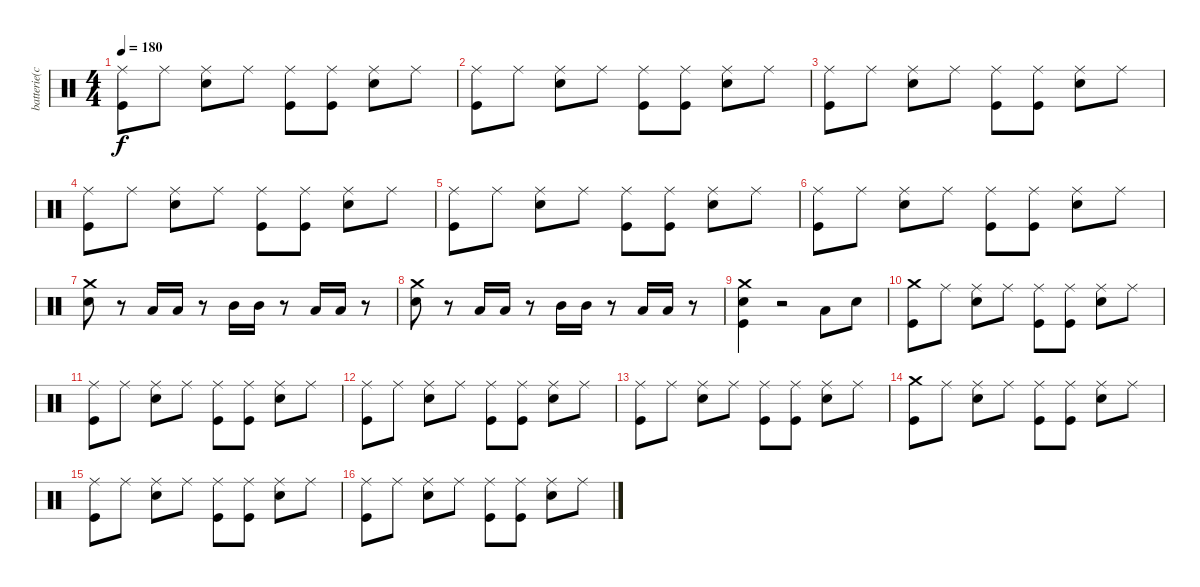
\track ("batterie(chip)" "batterie(c") {instrument percussion}
\staff {score}
\articulation defaults
\ts (4 4)
\tempo 180
\clef neutral
\ks c
("Ride (middle)" "Kick (hit)").8{dy f} "Ride (middle)".8 ("Ride (middle)" "Snare (hit) 2").8 "Ride (middle)".8 ("Ride (middle)" "Kick (hit)").8 ("Ride (middle)" "Kick (hit)").8 ("Ride (middle)" "Snare (hit) 2").8 "Ride (middle)".8 |
("Ride (middle)" "Kick (hit)").8 "Ride (middle)".8 ("Ride (middle)" "Snare (hit) 2").8 "Ride (middle)".8 ("Ride (middle)" "Kick (hit)").8 ("Ride (middle)" "Kick (hit)").8 ("Ride (middle)" "Snare (hit) 2").8 "Ride (middle)".8 |
("Ride (middle)" "Kick (hit)").8 "Ride (middle)".8 ("Ride (middle)" "Snare (hit) 2").8 "Ride (middle)".8 ("Ride (middle)" "Kick (hit)").8 ("Ride (middle)" "Kick (hit)").8 ("Ride (middle)" "Snare (hit) 2").8 "Ride (middle)".8 |
("Ride (middle)" "Kick (hit)").8 "Ride (middle)".8 ("Ride (middle)" "Snare (hit) 2").8 "Ride (middle)".8 ("Ride (middle)" "Kick (hit)").8 ("Ride (middle)" "Kick (hit)").8 ("Ride (middle)" "Snare (hit) 2").8 "Ride (middle)".8 |
("Ride (middle)" "Kick (hit)").8 "Ride (middle)".8 ("Ride (middle)" "Snare (hit) 2").8 "Ride (middle)".8 ("Ride (middle)" "Kick (hit)").8 ("Ride (middle)" "Kick (hit)").8 ("Ride (middle)" "Snare (hit) 2").8 "Ride (middle)".8 |
("Ride (middle)" "Kick (hit)").8 "Ride (middle)".8 ("Ride (middle)" "Snare (hit) 2").8 "Ride (middle)".8 ("Ride (middle)" "Kick (hit)").8 ("Ride (middle)" "Kick (hit)").8 ("Ride (middle)" "Snare (hit) 2").8 "Ride (middle)".8 |
("Crash medium (hit)" "Snare (hit) 2").8 r.8 "Low Tom (hit)".16 "Low Tom (hit)".16 r.8 "Mid Tom (hit)".16 "Mid Tom (hit)".16 r.8 "Low Tom (hit)".16 "Low Tom (hit)".16 r.8 |
("Crash medium (hit)" "Snare (hit) 2").8 r.8 "Low Tom (hit)".16 "Low Tom (hit)".16 r.8 "Mid Tom (hit)".16 "Mid Tom (hit)".16 r.8 "Low Tom (hit)".16 "Low Tom (hit)".16 r.8 |
("Crash medium (hit)" "Snare (hit) 2" "Kick (hit)").4 r.2 "Low Tom (hit)".8 "Snare (hit) 2".8 |
("Crash medium (hit)" "Kick (hit)").8 "Ride (middle)".8 ("Ride (middle)" "Snare (hit) 2").8 "Ride (middle)".8 ("Ride (middle)" "Kick (hit)").8 ("Ride (middle)" "Kick (hit)").8 ("Ride (middle)" "Snare (hit) 2").8 "Ride (middle)".8 |
("Ride (middle)" "Kick (hit)").8 "Ride (middle)".8 ("Ride (middle)" "Snare (hit) 2").8 "Ride (middle)".8 ("Ride (middle)" "Kick (hit)").8 ("Ride (middle)" "Kick (hit)").8 ("Ride (middle)" "Snare (hit) 2").8 "Ride (middle)".8 |
("Ride (middle)" "Kick (hit)").8 "Ride (middle)".8 ("Ride (middle)" "Snare (hit) 2").8 "Ride (middle)".8 ("Ride (middle)" "Kick (hit)").8 ("Ride (middle)" "Kick (hit)").8 ("Ride (middle)" "Snare (hit) 2").8 "Ride (middle)".8 |
("Ride (middle)" "Kick (hit)").8 "Ride (middle)".8 ("Ride (middle)" "Snare (hit) 2").8 "Ride (middle)".8 ("Ride (middle)" "Kick (hit)").8 ("Ride (middle)" "Kick (hit)").8 ("Ride (middle)" "Snare (hit) 2").8 "Ride (middle)".8 |
("Crash medium (hit)" "Kick (hit)").8 "Ride (middle)".8 ("Ride (middle)" "Snare (hit) 2").8 "Ride (middle)".8 ("Ride (middle)" "Kick (hit)").8 ("Ride (middle)" "Kick (hit)").8 ("Ride (middle)" "Snare (hit) 2").8 "Ride (middle)".8 |
("Ride (middle)" "Kick (hit)").8 "Ride (middle)".8 ("Ride (middle)" "Snare (hit) 2").8 "Ride (middle)".8 ("Ride (middle)" "Kick (hit)").8 ("Ride (middle)" "Kick (hit)").8 ("Ride (middle)" "Snare (hit) 2").8 "Ride (middle)".8 |
("Ride (middle)" "Kick (hit)").8 "Ride (middle)".8 ("Ride (middle)" "Snare (hit) 2").8 "Ride (middle)".8 ("Ride (middle)" "Kick (hit)").8 ("Ride (middle)" "Kick (hit)").8 ("Ride (middle)" "Snare (hit) 2").8 "Ride (middle)".8
